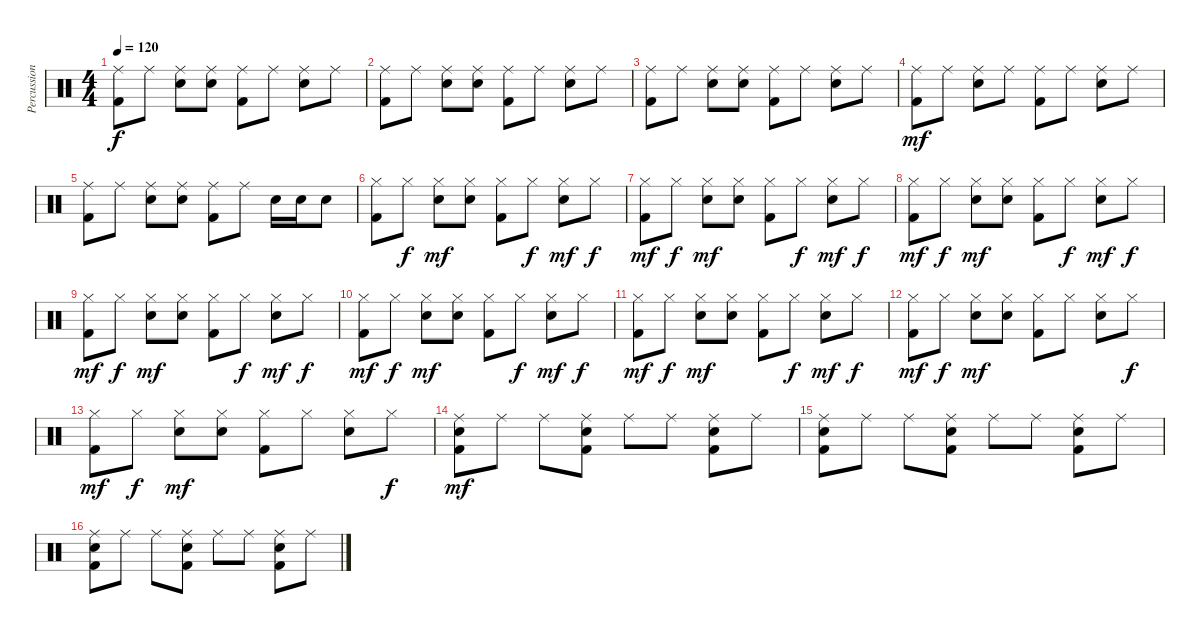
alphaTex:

\track ("Percussion" "Percussion") {instrument percussion}
\staff {score}
\articulation defaults
\ts (4 4)
\tempo 120
\clef neutral
\ks c
("Ride (middle)" "Kick (hit) 2").8{dy f} "Ride (middle)".8 ("Ride (middle)" "Snare (hit) 2").8 ("Ride (middle)" "Snare (hit) 2").8 ("Ride (middle)" "Kick (hit) 2").8 "Ride (middle)".8 ("Ride (middle)" "Snare (hit) 2").8 "Ride (middle)".8 |
("Ride (middle)" "Kick (hit) 2").8 "Ride (middle)".8 ("Ride (middle)" "Snare (hit) 2").8 ("Ride (middle)" "Snare (hit) 2").8 ("Ride (middle)" "Kick (hit) 2").8 "Ride (middle)".8 ("Ride (middle)" "Snare (hit) 2").8 "Ride (middle)".8 |
("Ride (middle)" "Kick (hit) 2").8 "Ride (middle)".8 ("Ride (middle)" "Snare (hit) 2").8 ("Ride (middle)" "Snare (hit) 2").8 ("Ride (middle)" "Kick (hit) 2").8 "Ride (middle)".8 ("Ride (middle)" "Snare (hit) 2").8 "Ride (middle)".8 |
("Ride (middle)" "Kick (hit) 2").8{dy mf} "Ride (middle)".8 ("Ride (middle)" "Snare (hit) 2").8 "Ride (middle)".8 ("Ride (middle)" "Kick (hit) 2").8 "Ride (middle)".8 ("Ride (middle)" "Snare (hit) 2").8 "Ride (middle)".8 |
("Ride (middle)" "Kick (hit) 2").8 "Ride (middle)".8 ("Ride (middle)" "Snare (hit) 2").8 ("Ride (middle)" "Snare (hit) 2").8 ("Ride (middle)" "Kick (hit) 2").8 "Ride (middle)".8 "Snare (hit) 2".16 "Snare (hit) 2".16 "Snare (hit) 2".8 |
("Hi-Hat (closed)" "Kick (hit) 2").8 "Hi-Hat (closed)".8{dy f} ("Hi-Hat (closed)" "Snare (hit) 2").8{dy mf} ("Hi-Hat (closed)" "Snare (hit) 2").8 ("Hi-Hat (closed)" "Kick (hit) 2").8 "Hi-Hat (closed)".8{dy f} ("Hi-Hat (closed)" "Snare (hit) 2").8{dy mf} "Hi-Hat (closed)".8{dy f} |
("Hi-Hat (closed)" "Kick (hit) 2").8{dy mf} "Hi-Hat (closed)".8{dy f} ("Hi-Hat (closed)" "Snare (hit) 2").8{dy mf} ("Hi-Hat (closed)" "Snare (hit) 2").8 ("Hi-Hat (closed)" "Kick (hit) 2").8 "Hi-Hat (closed)".8{dy f} ("Hi-Hat (closed)" "Snare (hit) 2").8{dy mf} "Hi-Hat (closed)".8{dy f} |
("Hi-Hat (closed)" "Kick (hit) 2").8{dy mf} "Hi-Hat (closed)".8{dy f} ("Hi-Hat (closed)" "Snare (hit) 2").8{dy mf} ("Hi-Hat (closed)" "Snare (hit) 2").8 ("Hi-Hat (closed)" "Kick (hit) 2").8 "Hi-Hat (closed)".8{dy f} ("Hi-Hat (closed)" "Snare (hit) 2").8{dy mf} "Hi-Hat (closed)".8{dy f} |
("Hi-Hat (closed)" "Kick (hit) 2").8{dy mf} "Hi-Hat (closed)".8{dy f} ("Hi-Hat (closed)" "Snare (hit) 2").8{dy mf} ("Hi-Hat (closed)" "Snare (hit) 2").8 ("Hi-Hat (closed)" "Kick (hit) 2").8 "Hi-Hat (closed)".8{dy f} ("Hi-Hat (closed)" "Snare (hit) 2").8{dy mf} "Hi-Hat (closed)".8{dy f} |
("Hi-Hat (closed)" "Kick (hit) 2").8{dy mf} "Hi-Hat (closed)".8{dy f} ("Hi-Hat (closed)" "Snare (hit) 2").8{dy mf} ("Hi-Hat (closed)" "Snare (hit) 2").8 ("Hi-Hat (closed)" "Kick (hit) 2").8 "Hi-Hat (closed)".8{dy f} ("Hi-Hat (closed)" "Snare (hit) 2").8{dy mf} "Hi-Hat (closed)".8{dy f} |
("Hi-Hat (closed)" "Kick (hit) 2").8{dy mf} "Hi-Hat (closed)".8{dy f} ("Hi-Hat (closed)" "Snare (hit) 2").8{dy mf} ("Hi-Hat (closed)" "Snare (hit) 2").8 ("Hi-Hat (closed)" "Kick (hit) 2").8 "Hi-Hat (closed)".8{dy f} ("Hi-Hat (closed)" "Snare (hit) 2").8{dy mf} "Hi-Hat (closed)".8{dy f} |
("Hi-Hat (closed)" "Kick (hit) 2").8{dy mf} "Hi-Hat (closed)".8{dy f} ("Hi-Hat (closed)" "Snare (hit) 2").8{dy mf} ("Hi-Hat (closed)" "Snare (hit) 2").8 ("Hi-Hat (closed)" "Kick (hit) 2").8 "Hi-Hat (closed)".8 ("Hi-Hat (closed)" "Snare (hit) 2").8 "Hi-Hat (closed)".8{dy f} |
("Hi-Hat (closed)" "Kick (hit) 2").8{dy mf} "Hi-Hat (closed)".8{dy f} ("Hi-Hat (closed)" "Snare (hit) 2").8{dy mf} ("Hi-Hat (closed)" "Snare (hit) 2").8 ("Hi-Hat (closed)" "Kick (hit) 2").8 "Hi-Hat (closed)".8 ("Hi-Hat (closed)" "Snare (hit) 2").8 "Hi-Hat (closed)".8{dy f} |
("Ride (middle)" "Kick (hit) 2" "Snare (hit) 2").8{dy mf} "Ride (middle)".8 "Ride (middle)".8 ("Ride (middle)" "Kick (hit) 2" "Snare (hit) 2").8 "Ride (middle)".8 "Ride (middle)".8 ("Ride (middle)" "Kick (hit) 2" "Snare (hit) 2").8 "Ride (middle)".8 |
("Ride (middle)" "Kick (hit) 2" "Snare (hit) 2").8 "Ride (middle)".8 "Ride (middle)".8 ("Ride (middle)" "Kick (hit) 2" "Snare (hit) 2").8 "Ride (middle)".8 "Ride (middle)".8 ("Ride (middle)" "Kick (hit) 2" "Snare (hit) 2").8 "Ride (middle)".8 |
("Ride (middle)" "Kick (hit) 2" "Snare (hit) 2").8 "Ride (middle)".8 "Ride (middle)".8 ("Ride (middle)" "Kick (hit) 2" "Snare (hit) 2").8 "Ride (middle)".8 "Ride (middle)".8 ("Ride (middle)" "Kick (hit) 2" "Snare (hit) 2").8 "Ride (middle)".8
